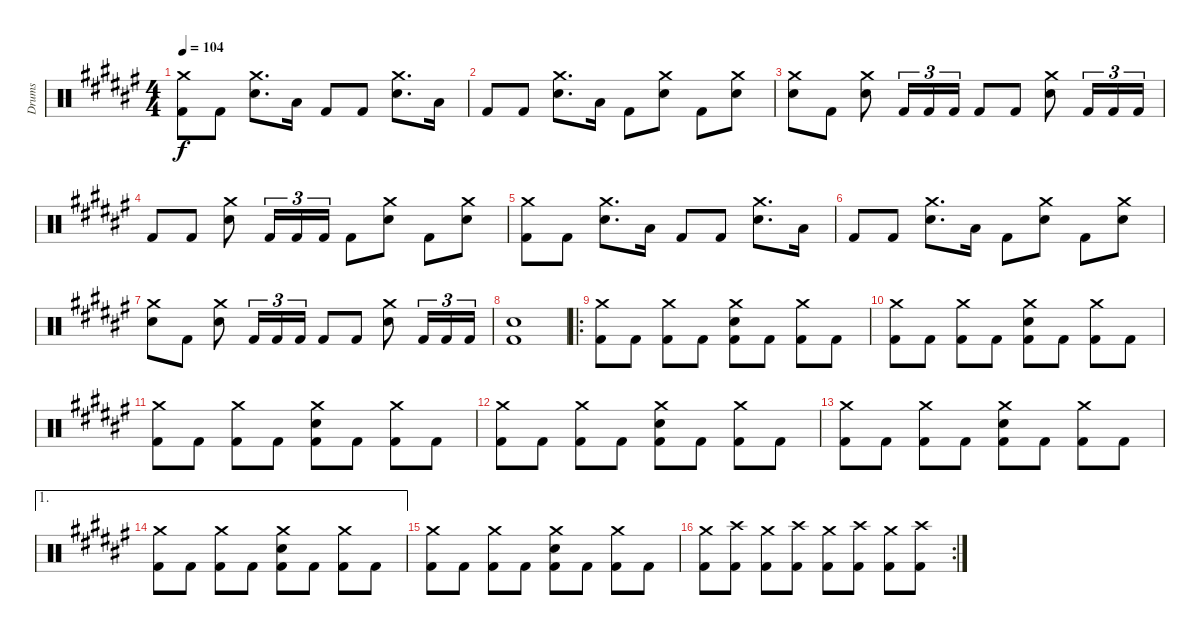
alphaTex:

\track ("Drums" "Drums") {instrument percussion}
\staff {score}
\articulation defaults
\ts (4 4)
\tempo 104
\clef neutral
\ks f#
("Crash medium (hit)" "Kick (hit) 2").8{dy f} "Kick (hit) 2".8 ("Crash medium (hit)" "Snare (hit) 2").8{d} "Low Floor Tom (hit)".16 "Kick (hit) 2".8 "Kick (hit) 2".8 ("Crash medium (hit)" "Snare (hit) 2").8{d} "Low Floor Tom (hit)".16 |
"Kick (hit) 2".8 "Kick (hit) 2".8 ("Crash medium (hit)" "Snare (hit) 2").8{d} "Low Floor Tom (hit)".16 "Kick (hit) 2".8 ("Crash medium (hit)" "Snare (hit) 2").8 "Kick (hit) 2".8 ("Crash medium (hit)" "Snare (hit) 2").8 |
("Crash medium (hit)" "Snare (hit) 2").8 "Kick (hit) 2".8 ("Crash medium (hit)" "Snare (hit) 2").8 "Kick (hit) 2".16{tu (3 2)} "Kick (hit) 2".16{tu (3 2)} "Kick (hit) 2".16{tu (3 2)} "Kick (hit) 2".8 "Kick (hit) 2".8 ("Crash medium (hit)" "Snare (hit) 2").8 "Kick (hit) 2".16{tu (3 2)} "Kick (hit) 2".16{tu (3 2)} "Kick (hit) 2".16{tu (3 2)} |
"Kick (hit) 2".8 "Kick (hit) 2".8 ("Crash medium (hit)" "Snare (hit) 2").8 "Kick (hit) 2".16{tu (3 2)} "Kick (hit) 2".16{tu (3 2)} "Kick (hit) 2".16{tu (3 2)} "Kick (hit) 2".8 ("Crash medium (hit)" "Snare (hit) 2").8 "Kick (hit) 2".8 ("Crash medium (hit)" "Snare (hit) 2").8 |
("Crash medium (hit)" "Kick (hit) 2").8 "Kick (hit) 2".8 ("Crash medium (hit)" "Snare (hit) 2").8{d} "Low Floor Tom (hit)".16 "Kick (hit) 2".8 "Kick (hit) 2".8 ("Crash medium (hit)" "Snare (hit) 2").8{d} "Low Floor Tom (hit)".16 |
"Kick (hit) 2".8 "Kick (hit) 2".8 ("Crash medium (hit)" "Snare (hit) 2").8{d} "Low Floor Tom (hit)".16 "Kick (hit) 2".8 ("Crash medium (hit)" "Snare (hit) 2").8 "Kick (hit) 2".8 ("Crash medium (hit)" "Snare (hit) 2").8 |
("Crash medium (hit)" "Snare (hit) 2").8 "Kick (hit) 2".8 ("Crash medium (hit)" "Snare (hit) 2").8 "Kick (hit) 2".16{tu (3 2)} "Kick (hit) 2".16{tu (3 2)} "Kick (hit) 2".16{tu (3 2)} "Kick (hit) 2".8 "Kick (hit) 2".8 ("Crash medium (hit)" "Snare (hit) 2").8 "Kick (hit) 2".16{tu (3 2)} "Kick (hit) 2".16{tu (3 2)} "Kick (hit) 2".16{tu (3 2)} |
("Snare (hit) 2" "Kick (hit) 2").1 |
\ro
("Crash medium (hit)" "Kick (hit) 2").8 "Kick (hit) 2".8 ("Crash medium (hit)" "Kick (hit) 2").8 "Kick (hit) 2".8 ("Crash medium (hit)" "Snare (hit) 2" "Kick (hit) 2").8 "Kick (hit) 2".8 ("Crash medium (hit)" "Kick (hit) 2").8 "Kick (hit) 2".8 |
("Crash medium (hit)" "Kick (hit) 2").8 "Kick (hit) 2".8 ("Crash medium (hit)" "Kick (hit) 2").8 "Kick (hit) 2".8 ("Crash medium (hit)" "Snare (hit) 2" "Kick (hit) 2").8 "Kick (hit) 2".8 ("Crash medium (hit)" "Kick (hit) 2").8 "Kick (hit) 2".8 |
("Crash medium (hit)" "Kick (hit) 2").8 "Kick (hit) 2".8 ("Crash medium (hit)" "Kick (hit) 2").8 "Kick (hit) 2".8 ("Crash medium (hit)" "Snare (hit) 2" "Kick (hit) 2").8 "Kick (hit) 2".8 ("Crash medium (hit)" "Kick (hit) 2").8 "Kick (hit) 2".8 |
("Crash medium (hit)" "Kick (hit) 2").8 "Kick (hit) 2".8 ("Crash medium (hit)" "Kick (hit) 2").8 "Kick (hit) 2".8 ("Crash medium (hit)" "Snare (hit) 2" "Kick (hit) 2").8 "Kick (hit) 2".8 ("Crash medium (hit)" "Kick (hit) 2").8 "Kick (hit) 2".8 |
("Crash medium (hit)" "Kick (hit) 2").8 "Kick (hit) 2".8 ("Crash medium (hit)" "Kick (hit) 2").8 "Kick (hit) 2".8 ("Crash medium (hit)" "Snare (hit) 2" "Kick (hit) 2").8 "Kick (hit) 2".8 ("Crash medium (hit)" "Kick (hit) 2").8 "Kick (hit) 2".8 |
\ae 1
("Crash medium (hit)" "Kick (hit) 2").8 "Kick (hit) 2".8 ("Crash medium (hit)" "Kick (hit) 2").8 "Kick (hit) 2".8 ("Crash medium (hit)" "Snare (hit) 2" "Kick (hit) 2").8 "Kick (hit) 2".8 ("Crash medium (hit)" "Kick (hit) 2").8 "Kick (hit) 2".8 |
("Crash medium (hit)" "Kick (hit) 2").8 "Kick (hit) 2".8 ("Crash medium (hit)" "Kick (hit) 2").8 "Kick (hit) 2".8 ("Crash medium (hit)" "Snare (hit) 2" "Kick (hit) 2").8 "Kick (hit) 2".8 ("Crash medium (hit)" "Kick (hit) 2").8 "Kick (hit) 2".8 |
\rc 2
("Crash medium (hit)" "Kick (hit) 2").8 ("Crash high (hit)" "Kick (hit) 2").8 ("Crash medium (hit)" "Kick (hit) 2").8 ("Crash high (hit)" "Kick (hit) 2").8 ("Crash medium (hit)" "Kick (hit) 2").8 ("Crash high (hit)" "Kick (hit) 2").8 ("Crash medium (hit)" "Kick (hit) 2").8 ("Crash high (hit)" "Kick (hit) 2").8
